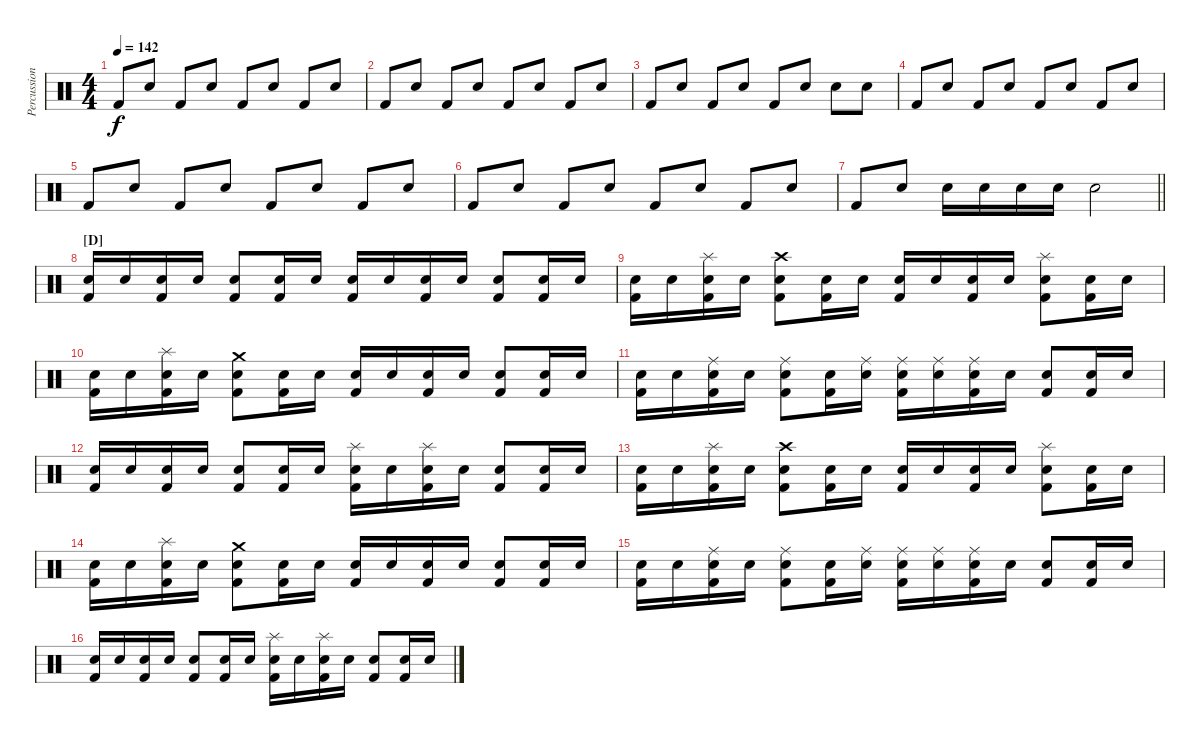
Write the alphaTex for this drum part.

\track ("Percussions" "Percussion") {instrument percussion}
\staff {score}
\articulation defaults
\ts (4 4)
\tempo 142
\clef neutral
\ks c "Kick (hit) 2".8{dy f} "Electric Snare (hit)".8 "Kick (hit) 2".8 "Electric Snare (hit)".8 "Kick (hit) 2".8 "Electric Snare (hit)".8 "Kick (hit) 2".8 "Electric Snare (hit)".8
|
"Kick (hit) 2".8 "Electric Snare (hit)".8 "Kick (hit) 2".8 "Electric Snare (hit)".8 "Kick (hit) 2".8 "Electric Snare (hit)".8 "Kick (hit) 2".8 "Electric Snare (hit)".8 |
"Kick (hit) 2".8 "Electric Snare (hit)".8 "Kick (hit) 2".8 "Electric Snare (hit)".8 "Kick (hit) 2".8 "Electric Snare (hit)".8 "Electric Snare (hit)".8 "Electric Snare (hit)".8 |
"Kick (hit) 2".8 "Electric Snare (hit)".8 "Kick (hit) 2".8 "Electric Snare (hit)".8 "Kick (hit) 2".8 "Electric Snare (hit)".8 "Kick (hit) 2".8 "Electric Snare (hit)".8 |
"Kick (hit) 2".8 "Electric Snare (hit)".8 "Kick (hit) 2".8 "Electric Snare (hit)".8 "Kick (hit) 2".8 "Electric Snare (hit)".8 "Kick (hit) 2".8 "Electric Snare (hit)".8 |
"Kick (hit) 2".8 "Electric Snare (hit)".8 "Kick (hit) 2".8 "Electric Snare (hit)".8 "Kick (hit) 2".8 "Electric Snare (hit)".8 "Kick (hit) 2".8 "Electric Snare (hit)".8 |
\barLineRight lightlight "Kick (hit) 2".8 "Electric Snare (hit)".8 "Electric Snare (hit)".16 "Electric Snare (hit)".16 "Electric Snare (hit)".16 "Electric Snare (hit)".16 "Electric Snare (hit)".2
|
\section ("" "[D]")
("Electric Snare (hit)" "Kick (hit) 2").16{volume 9} "Electric Snare (hit)".16 ("Electric Snare (hit)" "Kick (hit) 2").16 "Electric Snare (hit)".16 ("Snare (hit) 2" "Kick (hit) 2").8 ("Electric Snare (hit)" "Kick (hit) 2").16 "Electric Snare (hit)".16 ("Electric Snare (hit)" "Kick (hit) 2").16 "Electric Snare (hit)".16 ("Electric Snare (hit)" "Kick (hit) 2").16 "Electric Snare (hit)".16 ("Snare (hit) 2" "Kick (hit) 2").8 ("Electric Snare (hit)" "Kick (hit) 2").16 "Electric Snare (hit)".16 |
("Electric Snare (hit)" "Kick (hit) 2").16 "Electric Snare (hit)".16 ("Splash (hit)" "Electric Snare (hit)" "Kick (hit) 2").16 "Electric Snare (hit)".16 ("Crash high (hit)" "Snare (hit) 2" "Kick (hit) 2").8 ("Electric Snare (hit)" "Kick (hit) 2").16 "Electric Snare (hit)".16 ("Electric Snare (hit)" "Kick (hit) 2").16 "Electric Snare (hit)".16 ("Electric Snare (hit)" "Kick (hit) 2").16 "Electric Snare (hit)".16 ("Splash (hit)" "Snare (hit) 2" "Kick (hit) 2").8 ("Electric Snare (hit)" "Kick (hit) 2").16 "Electric Snare (hit)".16 |
("Electric Snare (hit)" "Kick (hit) 2").16 "Electric Snare (hit)".16 ("Splash (hit)" "Electric Snare (hit)" "Kick (hit) 2").16 "Electric Snare (hit)".16 ("Crash medium (hit)" "Snare (hit) 2" "Kick (hit) 2").8 ("Electric Snare (hit)" "Kick (hit) 2").16 "Electric Snare (hit)".16 ("Electric Snare (hit)" "Kick (hit) 2").16 "Electric Snare (hit)".16 ("Electric Snare (hit)" "Kick (hit) 2").16 "Electric Snare (hit)".16 ("Snare (hit) 2" "Kick (hit) 2").8 ("Electric Snare (hit)" "Kick (hit) 2").16 "Electric Snare (hit)".16 |
("Electric Snare (hit)" "Kick (hit) 2").16 "Electric Snare (hit)".16 ("Ride (middle)" "Electric Snare (hit)" "Kick (hit) 2").16 "Electric Snare (hit)".16 ("Ride (middle)" "Snare (hit) 2" "Kick (hit) 2").8 ("Electric Snare (hit)" "Kick (hit) 2").16 ("Ride (middle)" "Electric Snare (hit)").16 ("Ride (middle)" "Electric Snare (hit)" "Kick (hit) 2").16 ("Ride (middle)" "Electric Snare (hit)").16 ("Ride (middle)" "Electric Snare (hit)" "Kick (hit) 2").16 "Electric Snare (hit)".16 ("Snare (hit) 2" "Kick (hit) 2").8 ("Electric Snare (hit)" "Kick (hit) 2").16 "Electric Snare (hit)".16 |
("Electric Snare (hit)" "Kick (hit) 2").16 "Electric Snare (hit)".16 ("Electric Snare (hit)" "Kick (hit) 2").16 "Electric Snare (hit)".16 ("Snare (hit) 2" "Kick (hit) 2").8 ("Electric Snare (hit)" "Kick (hit) 2").16 "Electric Snare (hit)".16 ("Splash (hit)" "Electric Snare (hit)" "Kick (hit) 2").16 "Electric Snare (hit)".16 ("Splash (hit)" "Electric Snare (hit)" "Kick (hit) 2").16 "Electric Snare (hit)".16 ("Snare (hit) 2" "Kick (hit) 2").8 ("Electric Snare (hit)" "Kick (hit) 2").16 "Electric Snare (hit)".16 |
("Electric Snare (hit)" "Kick (hit) 2").16 "Electric Snare (hit)".16 ("Splash (hit)" "Electric Snare (hit)" "Kick (hit) 2").16 "Electric Snare (hit)".16 ("Crash high (hit)" "Snare (hit) 2" "Kick (hit) 2").8 ("Electric Snare (hit)" "Kick (hit) 2").16 "Electric Snare (hit)".16 ("Electric Snare (hit)" "Kick (hit) 2").16 "Electric Snare (hit)".16 ("Electric Snare (hit)" "Kick (hit) 2").16 "Electric Snare (hit)".16 ("Splash (hit)" "Snare (hit) 2" "Kick (hit) 2").8 ("Electric Snare (hit)" "Kick (hit) 2").16 "Electric Snare (hit)".16 |
("Electric Snare (hit)" "Kick (hit) 2").16 "Electric Snare (hit)".16 ("Splash (hit)" "Electric Snare (hit)" "Kick (hit) 2").16 "Electric Snare (hit)".16 ("Crash medium (hit)" "Snare (hit) 2" "Kick (hit) 2").8 ("Electric Snare (hit)" "Kick (hit) 2").16 "Electric Snare (hit)".16 ("Electric Snare (hit)" "Kick (hit) 2").16 "Electric Snare (hit)".16 ("Electric Snare (hit)" "Kick (hit) 2").16 "Electric Snare (hit)".16 ("Snare (hit) 2" "Kick (hit) 2").8 ("Electric Snare (hit)" "Kick (hit) 2").16 "Electric Snare (hit)".16 |
("Electric Snare (hit)" "Kick (hit) 2").16 "Electric Snare (hit)".16 ("Ride (middle)" "Electric Snare (hit)" "Kick (hit) 2").16 "Electric Snare (hit)".16 ("Ride (middle)" "Snare (hit) 2" "Kick (hit) 2").8 ("Electric Snare (hit)" "Kick (hit) 2").16 ("Ride (middle)" "Electric Snare (hit)").16 ("Ride (middle)" "Electric Snare (hit)" "Kick (hit) 2").16 ("Ride (middle)" "Electric Snare (hit)").16 ("Ride (middle)" "Electric Snare (hit)" "Kick (hit) 2").16 "Electric Snare (hit)".16 ("Snare (hit) 2" "Kick (hit) 2").8 ("Electric Snare (hit)" "Kick (hit) 2").16 "Electric Snare (hit)".16 |
("Electric Snare (hit)" "Kick (hit) 2").16 "Electric Snare (hit)".16 ("Electric Snare (hit)" "Kick (hit) 2").16 "Electric Snare (hit)".16 ("Snare (hit) 2" "Kick (hit) 2").8 ("Electric Snare (hit)" "Kick (hit) 2").16 "Electric Snare (hit)".16 ("Splash (hit)" "Electric Snare (hit)" "Kick (hit) 2").16 "Electric Snare (hit)".16 ("Splash (hit)" "Electric Snare (hit)" "Kick (hit) 2").16 "Electric Snare (hit)".16 ("Snare (hit) 2" "Kick (hit) 2").8 ("Electric Snare (hit)" "Kick (hit) 2").16 "Electric Snare (hit)".16
